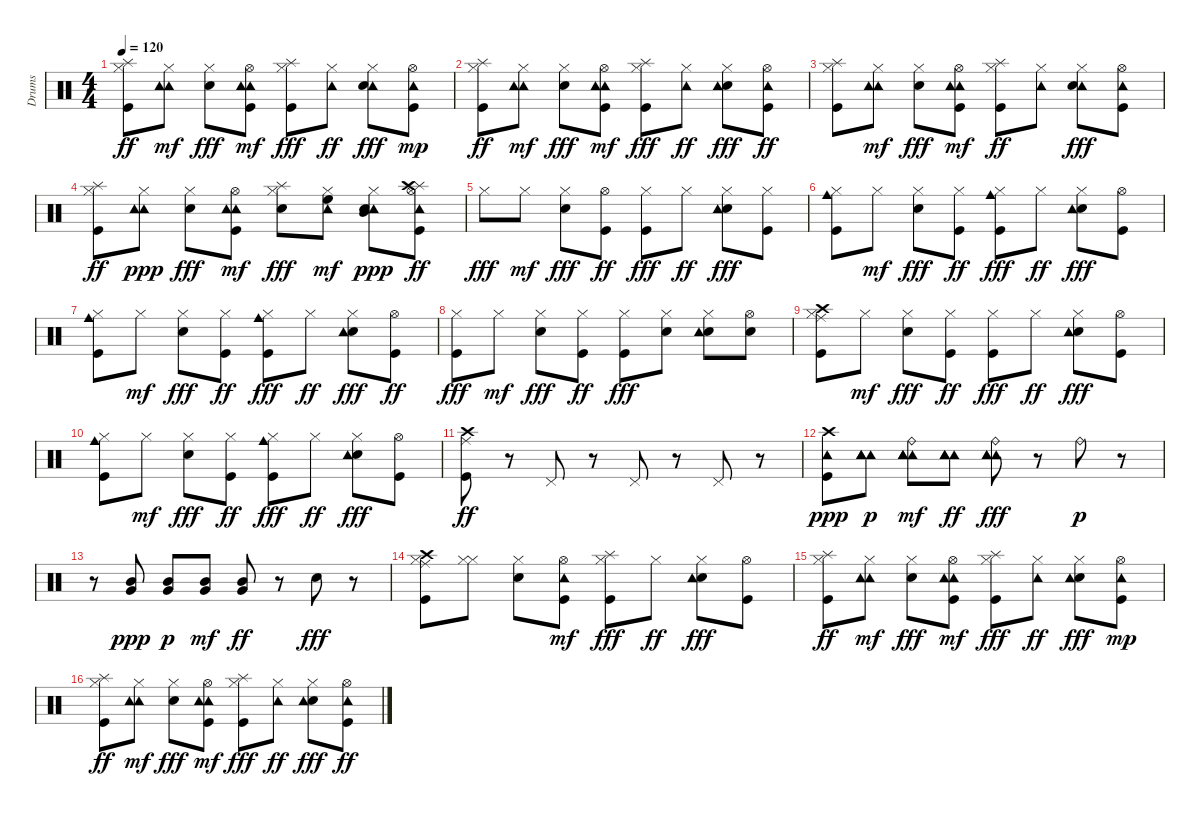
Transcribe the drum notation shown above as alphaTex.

\track ("Drums " "Drums ") {instrument percussion}
\staff {score}
\articulation defaults
\ts (4 4)
\tempo 120
\clef neutral
\ks c
("Hi-Hat (closed)" "Kick (hit)" "Splash (hit)").8{dy ff} ("Tambourine (hit)" "Hi-Hat (closed)" "Tambourine (hit)").8{dy mf} ("Hi-Hat (closed)" "Electric Snare (hit)").8{dy fff} ("Tambourine (hit)" "Kick (hit)" "Tambourine (hit)" "Hi-Hat (open)").8{dy mf} ("Kick (hit)" "Splash (hit)" "Hi-Hat (closed)").8{dy fff} ("Tambourine (hit)" "Hi-Hat (closed)").8{dy ff} ("Tambourine (hit)" "Hi-Hat (closed)" "Electric Snare (hit)").8{dy fff} ("Kick (hit)" "Hi-Hat (open)" "Tambourine (hit)").8{dy mp} |
("Hi-Hat (closed)" "Kick (hit)" "Splash (hit)").8{dy ff} ("Tambourine (hit)" "Hi-Hat (closed)" "Tambourine (hit)").8{dy mf} ("Hi-Hat (closed)" "Electric Snare (hit)").8{dy fff} ("Tambourine (hit)" "Kick (hit)" "Tambourine (hit)" "Hi-Hat (open)").8{dy mf} ("Splash (hit)" "Hi-Hat (closed)" "Kick (hit)").8{dy fff} ("Tambourine (hit)" "Hi-Hat (closed)").8{dy ff} ("Electric Snare (hit)" "Hi-Hat (closed)" "Tambourine (hit)").8{dy fff} ("Kick (hit)" "Tambourine (hit)" "Hi-Hat (open)").8{dy ff} |
("Hi-Hat (closed)" "Kick (hit)" "Splash (hit)").8 ("Tambourine (hit)" "Hi-Hat (closed)" "Tambourine (hit)").8{dy mf} ("Hi-Hat (closed)" "Electric Snare (hit)").8{dy fff} ("Kick (hit)" "Tambourine (hit)" "Tambourine (hit)" "Hi-Hat (open)").8{dy mf} ("Kick (hit)" "Hi-Hat (closed)" "Splash (hit)").8{dy ff} ("Tambourine (hit)" "Hi-Hat (closed)").8 ("Tambourine (hit)" "Hi-Hat (closed)" "Electric Snare (hit)").8{dy fff} ("Tambourine (hit)" "Hi-Hat (open)" "Kick (hit)").8 |
("Hi-Hat (closed)" "Kick (hit)" "Splash (hit)").8{dy ff} ("Hi-Hat (closed)" "Tambourine (hit)" "Tambourine (hit)").8{dy ppp} ("Electric Snare (hit)" "Hi-Hat (closed)").8{dy fff} ("Tambourine (hit)" "Kick (hit)" "Tambourine (hit)" "Hi-Hat (open)").8{dy mf} ("Hi-Hat (closed)" "Splash (hit)" "Electric Snare (hit)").8{dy fff} ("Hi-Hat (closed)" "Tambourine (hit)" "High Floor Tom (hit)").8{dy mf} ("Hi-Hat (closed)" "Tambourine (hit)" "Mid Tom (hit)" "Electric Snare (hit)").8{dy ppp} ("Tambourine (hit)" "Hi-Hat (open)" "Kick (hit)" "Splash (hit)" "Crash high (hit)").8{dy ff} |
"Hi-Hat (closed)".8{dy fff} "Hi-Hat (closed)".8{dy mf} ("Hi-Hat (closed)" "Electric Snare (hit)").8{dy fff} ("Hi-Hat (open)" "Kick (hit)").8{dy ff} ("Hi-Hat (closed)" "Kick (hit)").8{dy fff} "Hi-Hat (closed)".8{dy ff} ("Electric Snare (hit)" "Tambourine (hit)" "Hi-Hat (closed)").8{dy fff} ("Hi-Hat (closed)" "Kick (hit)").8 |
("Hi-Hat (closed)" "Kick (hit)" "Cowbell medium (hit)").8 "Hi-Hat (closed)".8{dy mf} ("Hi-Hat (closed)" "Electric Snare (hit)").8{dy fff} ("Hi-Hat (closed)" "Kick (hit)").8{dy ff} ("Kick (hit)" "Cowbell medium (hit)" "Hi-Hat (closed)").8{dy fff} "Hi-Hat (closed)".8{dy ff} ("Electric Snare (hit)" "Tambourine (hit)" "Hi-Hat (closed)").8{dy fff} ("Hi-Hat (open)" "Kick (hit)").8 |
("Hi-Hat (closed)" "Kick (hit)" "Cowbell medium (hit)").8 "Hi-Hat (closed)".8{dy mf} ("Hi-Hat (closed)" "Electric Snare (hit)").8{dy fff} ("Hi-Hat (closed)" "Kick (hit)").8{dy ff} ("Kick (hit)" "Cowbell medium (hit)" "Hi-Hat (closed)").8{dy fff} "Hi-Hat (closed)".8{dy ff} ("Electric Snare (hit)" "Tambourine (hit)" "Hi-Hat (closed)").8{dy fff} ("Kick (hit)" "Hi-Hat (open)").8{dy ff} |
("Hi-Hat (closed)" "Kick (hit)").8{dy fff} "Hi-Hat (closed)".8{dy mf} ("Hi-Hat (closed)" "Electric Snare (hit)").8{dy fff} ("Hi-Hat (closed)" "Kick (hit)").8{dy ff} ("Hi-Hat (closed)" "Kick (hit)").8{dy fff} ("Hi-Hat (closed)" "Electric Snare (hit)").8 ("Electric Snare (hit)" "Tambourine (hit)" "Hi-Hat (closed)").8 ("Hi-Hat (open)" "Electric Snare (hit)").8 |
("Crash high (hit)" "Hi-Hat (closed)" "Kick (hit)" "Ride (middle)").8 "Hi-Hat (closed)".8{dy mf} ("Hi-Hat (closed)" "Electric Snare (hit)").8{dy fff} ("Hi-Hat (closed)" "Kick (hit)").8{dy ff} ("Hi-Hat (closed)" "Kick (hit)").8{dy fff} "Hi-Hat (closed)".8{dy ff} ("Electric Snare (hit)" "Tambourine (hit)" "Hi-Hat (closed)").8{dy fff} ("Hi-Hat (open)" "Kick (hit)").8 |
("Hi-Hat (closed)" "Kick (hit)" "Cowbell medium (hit)").8 "Hi-Hat (closed)".8{dy mf} ("Hi-Hat (closed)" "Electric Snare (hit)").8{dy fff} ("Hi-Hat (closed)" "Kick (hit)").8{dy ff} ("Kick (hit)" "Cowbell medium (hit)" "Hi-Hat (closed)").8{dy fff} "Hi-Hat (closed)".8{dy ff} ("Electric Snare (hit)" "Tambourine (hit)" "Hi-Hat (closed)").8{dy fff} ("Hi-Hat (open)" "Kick (hit)").8 |
("Crash high (hit)" "Kick (hit)" "Ride (middle)").8{dy ff} r.8 "Pedal Hi-Hat (hit)".8 r.8 "Pedal Hi-Hat (hit)".8 r.8 "Pedal Hi-Hat (hit)".8 r.8 |
("Kick (hit)" "Crash high (hit)" "Tambourine (hit)").8{dy ppp} ("Tambourine (hit)" "Tambourine (hit)" "Tambourine (hit)" "Tambourine (hit)").8{dy p} ("Tambourine (hit)" "Ride (bell)" "Tambourine (hit)" "Tambourine (hit)" "Tambourine (hit)").8{dy mf} ("Tambourine (hit)" "Tambourine (hit)" "Tambourine (hit)" "Tambourine (hit)").8{dy ff} ("Tambourine (hit)" "Ride (bell)" "Tambourine (hit)" "Tambourine (hit)").8{dy fff} r.8 "Ride (bell)".8{dy p} r.8 |
r.8 ("Mid Tom (hit)" "Very Low Tom (hit)").8{dy ppp} ("Mid Tom (hit)" "Very Low Tom (hit)").8{dy p} ("Mid Tom (hit)" "Very Low Tom (hit)").8{dy mf} ("Mid Tom (hit)" "Very Low Tom (hit)").8{dy ff} r.8 "Electric Snare (hit)".8{dy fff} r.8 |
("Crash high (hit)" "Hi-Hat (closed)" "Kick (hit)" "Ride (middle)").8 ("Hi-Hat (closed)" "Hi-Hat (closed)").8 ("Hi-Hat (closed)" "Electric Snare (hit)").8 ("Kick (hit)" "Tambourine (hit)" "Hi-Hat (open)").8{dy mf} ("Kick (hit)" "Splash (hit)" "Hi-Hat (closed)").8{dy fff} "Hi-Hat (closed)".8{dy ff} ("Electric Snare (hit)" "Tambourine (hit)" "Hi-Hat (closed)").8{dy fff} ("Hi-Hat (open)" "Kick (hit)").8 |
("Hi-Hat (closed)" "Kick (hit)" "Splash (hit)").8{dy ff} ("Tambourine (hit)" "Hi-Hat (closed)" "Tambourine (hit)").8{dy mf} ("Electric Snare (hit)" "Hi-Hat (closed)").8{dy fff} ("Tambourine (hit)" "Kick (hit)" "Tambourine (hit)" "Hi-Hat (open)").8{dy mf} ("Kick (hit)" "Splash (hit)" "Hi-Hat (closed)").8{dy fff} ("Tambourine (hit)" "Hi-Hat (closed)").8{dy ff} ("Electric Snare (hit)" "Tambourine (hit)" "Hi-Hat (closed)").8{dy fff} ("Kick (hit)" "Hi-Hat (open)" "Tambourine (hit)").8{dy mp} |
("Hi-Hat (closed)" "Kick (hit)" "Splash (hit)").8{dy ff} ("Tambourine (hit)" "Hi-Hat (closed)" "Tambourine (hit)").8{dy mf} ("Hi-Hat (closed)" "Electric Snare (hit)").8{dy fff} ("Tambourine (hit)" "Kick (hit)" "Tambourine (hit)" "Hi-Hat (open)").8{dy mf} ("Kick (hit)" "Splash (hit)" "Hi-Hat (closed)").8{dy fff} ("Tambourine (hit)" "Hi-Hat (closed)").8{dy ff} ("Electric Snare (hit)" "Tambourine (hit)" "Hi-Hat (closed)").8{dy fff} ("Kick (hit)" "Tambourine (hit)" "Hi-Hat (open)").8{dy ff}
